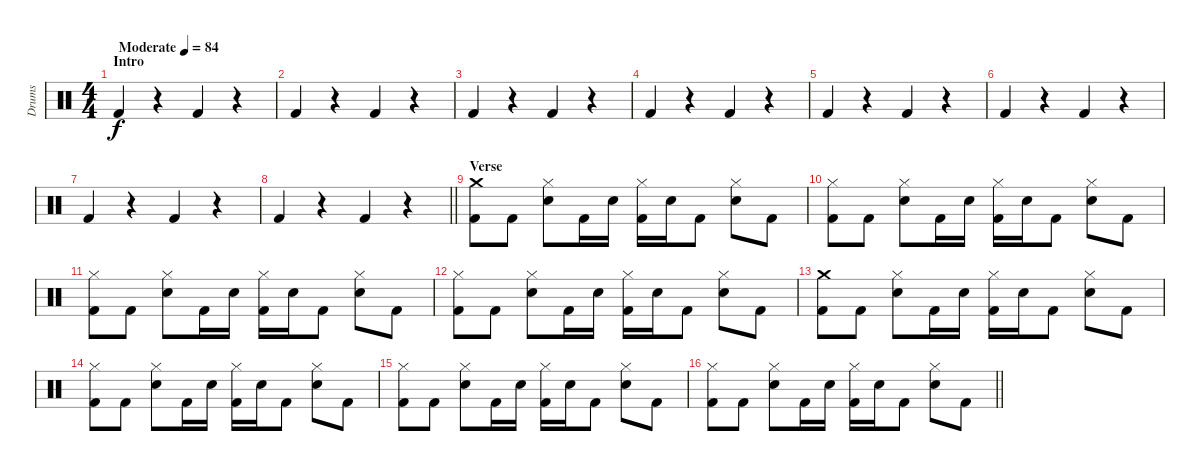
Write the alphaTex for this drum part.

\track ("Drums" "Drums") {instrument percussion}
\staff {score}
\articulation defaults
\ts (4 4)
\section ("" "Intro")
\tempo (84 "Moderate")
\clef neutral
\ks c "Kick (hit) 2".4{dy f}
r.4 "Kick (hit) 2".4 r.4 |
"Kick (hit) 2".4 r.4 "Kick (hit) 2".4 r.4 |
"Kick (hit) 2".4 r.4 "Kick (hit) 2".4 r.4 |
"Kick (hit) 2".4 r.4 "Kick (hit) 2".4 r.4 |
"Kick (hit) 2".4 r.4 "Kick (hit) 2".4 r.4 |
"Kick (hit) 2".4 r.4 "Kick (hit) 2".4 r.4 |
"Kick (hit) 2".4 r.4 "Kick (hit) 2".4 r.4 |
\barLineRight lightlight "Kick (hit) 2".4
r.4 "Kick (hit) 2".4 r.4 |
\section ("" "Verse")
("Crash medium (hit)" "Kick (hit) 2").8 "Kick (hit) 2".8 ("Hi-Hat (closed)" "Snare (hit) 2").8 "Kick (hit) 2".16 "Snare (hit) 2".16 ("Hi-Hat (closed)" "Kick (hit) 2").16 "Snare (hit) 2".16 "Kick (hit) 2".8 ("Hi-Hat (closed)" "Snare (hit) 2").8 "Kick (hit) 2".8 |
("Hi-Hat (closed)" "Kick (hit) 2").8 "Kick (hit) 2".8 ("Hi-Hat (closed)" "Snare (hit) 2").8 "Kick (hit) 2".16 "Snare (hit) 2".16 ("Hi-Hat (closed)" "Kick (hit) 2").16 "Snare (hit) 2".16 "Kick (hit) 2".8 ("Hi-Hat (closed)" "Snare (hit) 2").8 "Kick (hit) 2".8 |
("Hi-Hat (closed)" "Kick (hit) 2").8 "Kick (hit) 2".8 ("Hi-Hat (closed)" "Snare (hit) 2").8 "Kick (hit) 2".16 "Snare (hit) 2".16 ("Hi-Hat (closed)" "Kick (hit) 2").16 "Snare (hit) 2".16 "Kick (hit) 2".8 ("Hi-Hat (closed)" "Snare (hit) 2").8 "Kick (hit) 2".8 |
("Hi-Hat (closed)" "Kick (hit) 2").8 "Kick (hit) 2".8 ("Hi-Hat (closed)" "Snare (hit) 2").8 "Kick (hit) 2".16 "Snare (hit) 2".16 ("Hi-Hat (closed)" "Kick (hit) 2").16 "Snare (hit) 2".16 "Kick (hit) 2".8 ("Hi-Hat (closed)" "Snare (hit) 2").8 "Kick (hit) 2".8 |
("Crash medium (hit)" "Kick (hit) 2").8 "Kick (hit) 2".8 ("Hi-Hat (closed)" "Snare (hit) 2").8 "Kick (hit) 2".16 "Snare (hit) 2".16 ("Hi-Hat (closed)" "Kick (hit) 2").16 "Snare (hit) 2".16 "Kick (hit) 2".8 ("Hi-Hat (closed)" "Snare (hit) 2").8 "Kick (hit) 2".8 |
("Hi-Hat (closed)" "Kick (hit) 2").8 "Kick (hit) 2".8 ("Hi-Hat (closed)" "Snare (hit) 2").8 "Kick (hit) 2".16 "Snare (hit) 2".16 ("Hi-Hat (closed)" "Kick (hit) 2").16 "Snare (hit) 2".16 "Kick (hit) 2".8 ("Hi-Hat (closed)" "Snare (hit) 2").8 "Kick (hit) 2".8 |
("Hi-Hat (closed)" "Kick (hit) 2").8 "Kick (hit) 2".8 ("Hi-Hat (closed)" "Snare (hit) 2").8 "Kick (hit) 2".16 "Snare (hit) 2".16 ("Hi-Hat (closed)" "Kick (hit) 2").16 "Snare (hit) 2".16 "Kick (hit) 2".8 ("Hi-Hat (closed)" "Snare (hit) 2").8 "Kick (hit) 2".8 |
\barLineRight lightlight
("Hi-Hat (closed)" "Kick (hit) 2").8 "Kick (hit) 2".8 ("Hi-Hat (closed)" "Snare (hit) 2").8 "Kick (hit) 2".16 "Snare (hit) 2".16 ("Hi-Hat (closed)" "Kick (hit) 2").16 "Snare (hit) 2".16 "Kick (hit) 2".8 ("Hi-Hat (closed)" "Snare (hit) 2").8 "Kick (hit) 2".8
